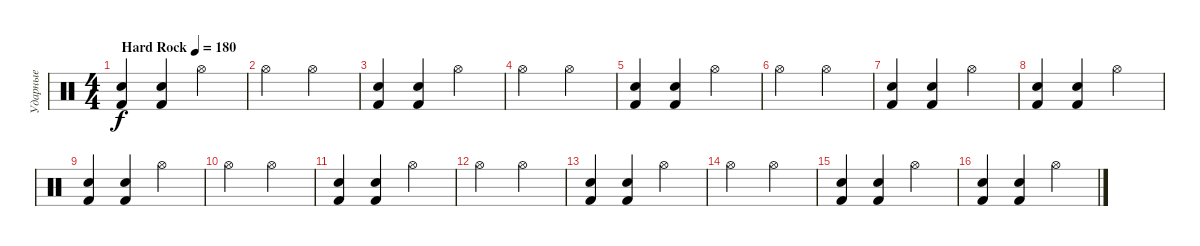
\track ("Ударные" "Ударные") {instrument percussion}
\staff
\articulation defaults
\ts (4 4)
\tempo (180 "Hard Rock")
\clef neutral
\ks c
("Kick (hit) 2" "Electric Snare (hit)").4{dy f} ("Kick (hit) 2" "Electric Snare (hit)").4 "Hi-Hat (open)".2 |
"Hi-Hat (open)".2 "Hi-Hat (open)".2 |
("Kick (hit) 2" "Electric Snare (hit)").4 ("Kick (hit) 2" "Electric Snare (hit)").4 "Hi-Hat (open)".2 |
"Hi-Hat (open)".2 "Hi-Hat (open)".2 |
("Kick (hit) 2" "Electric Snare (hit)").4 ("Kick (hit) 2" "Electric Snare (hit)").4 "Hi-Hat (open)".2 |
"Hi-Hat (open)".2 "Hi-Hat (open)".2 |
("Kick (hit) 2" "Electric Snare (hit)").4 ("Kick (hit) 2" "Electric Snare (hit)").4 "Hi-Hat (open)".2 |
("Kick (hit) 2" "Electric Snare (hit)").4 ("Kick (hit) 2" "Electric Snare (hit)").4 "Hi-Hat (open)".2 |
("Kick (hit) 2" "Electric Snare (hit)").4 ("Kick (hit) 2" "Electric Snare (hit)").4 "Hi-Hat (open)".2 |
"Hi-Hat (open)".2 "Hi-Hat (open)".2 |
("Kick (hit) 2" "Electric Snare (hit)").4 ("Kick (hit) 2" "Electric Snare (hit)").4 "Hi-Hat (open)".2 |
"Hi-Hat (open)".2 "Hi-Hat (open)".2 |
("Kick (hit) 2" "Electric Snare (hit)").4 ("Kick (hit) 2" "Electric Snare (hit)").4 "Hi-Hat (open)".2 |
"Hi-Hat (open)".2 "Hi-Hat (open)".2 |
("Kick (hit) 2" "Electric Snare (hit)").4 ("Kick (hit) 2" "Electric Snare (hit)").4 "Hi-Hat (open)".2 |
("Kick (hit) 2" "Electric Snare (hit)").4 ("Kick (hit) 2" "Electric Snare (hit)").4 "Hi-Hat (open)".2
